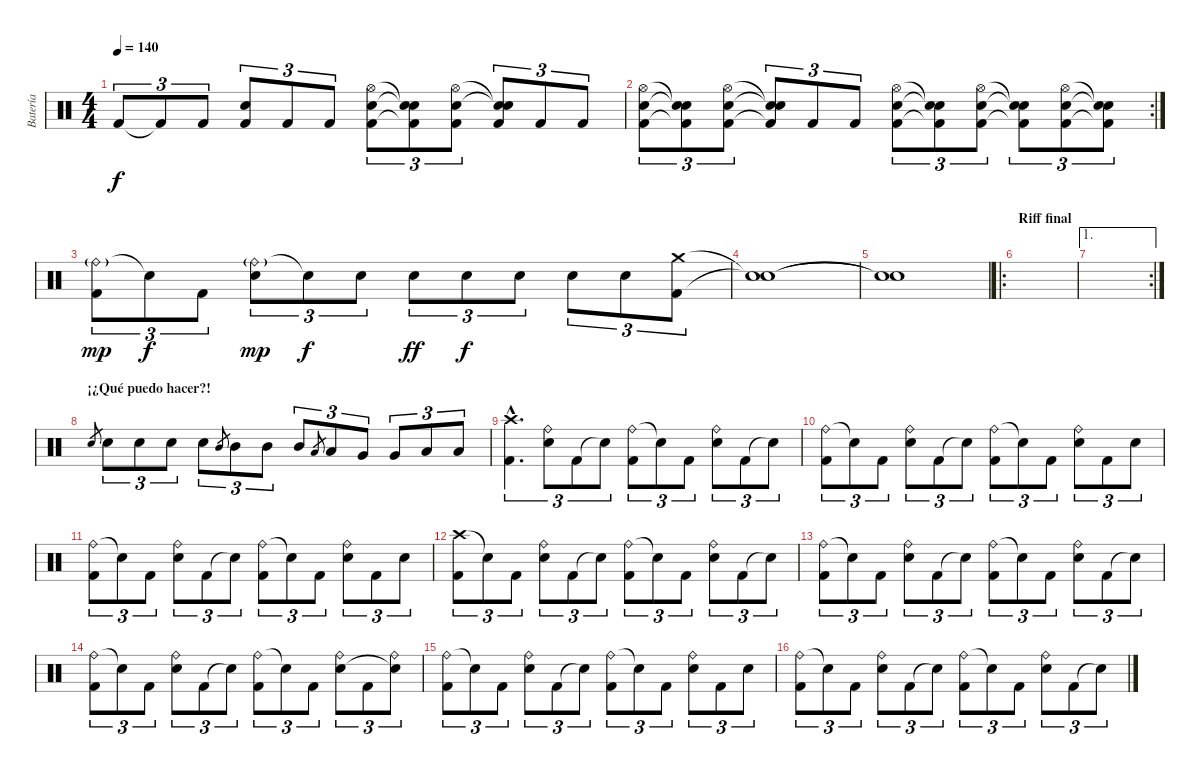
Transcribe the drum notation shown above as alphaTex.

\track ("Batería" "Batería") {instrument percussion}
\staff {score}
\articulation defaults
\ts (4 4)
\tempo 140
\clef neutral
\ks c "Kick (hit) 2".8{tu (3 2) dy f} "Kick (hit) 2"{t}.8{tu (3 2)} "Kick (hit) 2".8{tu (3 2)}
("Snare (hit) 2" "Kick (hit) 2").8{tu (3 2)} "Kick (hit) 2".8{tu (3 2)} "Kick (hit) 2".8{tu (3 2)} ("Hi-Hat (open)" "Snare (hit) 2" "Kick (hit) 2").8{tu (3 2)} ("Snare (hit)"{t} "Snare (hit)"{t} "Kick (hit) 2"{t}).8{tu (3 2)} ("Hi-Hat (open)" "Snare (hit) 2" "Kick (hit) 2").8{tu (3 2)} ("Snare (hit)"{t} "Snare (hit)"{t} "Kick (hit) 2").8{tu (3 2)} "Kick (hit) 2".8{tu (3 2)} "Kick (hit) 2".8{tu (3 2)} |
\rc 2
("Hi-Hat (open)" "Snare (hit) 2" "Kick (hit) 2").8{tu (3 2)} ("Snare (hit)"{t} "Snare (hit)"{t} "Kick (hit) 2"{t}).8{tu (3 2)} ("Hi-Hat (open)" "Snare (hit) 2" "Kick (hit) 2").8{tu (3 2)} ("Snare (hit)"{t} "Snare (hit) 2"{t} "Kick (hit) 2"{t}).8{tu (3 2)} "Kick (hit) 2".8{tu (3 2)} "Kick (hit) 2".8{tu (3 2)} ("Hi-Hat (open)" "Snare (hit) 2" "Kick (hit) 2").8{tu (3 2)} ("Snare (hit)"{t} "Snare (hit)"{t} "Kick (hit) 2"{t}).8{tu (3 2)} ("Hi-Hat (open)" "Snare (hit) 2" "Kick (hit) 2").8{tu (3 2)} ("Snare (hit)"{t} "Snare (hit)"{t} "Kick (hit) 2"{t}).8{tu (3 2)} ("Hi-Hat (open)" "Snare (hit) 2" "Kick (hit) 2").8{tu (3 2)} ("Snare (hit)"{t} "Snare (hit)"{t} "Kick (hit) 2"{t}).8{tu (3 2)} |
("Ride (bell)"{g} "Kick (hit) 2").8{tu (3 2) dy mp} "Snare (hit)"{t}.8{tu (3 2) dy f} "Kick (hit) 2".8{tu (3 2)} ("Ride (bell)"{g} "Snare (hit) 2").8{tu (3 2) dy mp} "Snare (hit)"{t}.8{tu (3 2) dy f} "Snare (hit) 2".8{tu (3 2)} "Snare (hit) 2".8{tu (3 2) dy ff} "Snare (hit) 2".8{tu (3 2) dy f} "Snare (hit) 2".8{tu (3 2)} "Snare (hit) 2".8{tu (3 2)} "Snare (hit) 2".8{tu (3 2)} ("Crash medium (hit)" "Kick (hit) 2").8{tu (3 2)} |
("Snare (hit)"{t} "Snare (hit)"{t}).1 |
("Snare (hit)"{t} "Snare (hit)"{t}).1 |
\ro
\section ("" "Riff final")
|
\ae 1
\rc 2
|
\section ("" "¡¿Qué puedo hacer?!")
"Snare (hit) 2".8{gr} "Snare (hit) 2".8{tu (3 2)} "Snare (hit) 2".8{tu (3 2)} "Snare (hit) 2".8{tu (3 2)} "Snare (hit) 2".8{tu (3 2)} "Mid Tom (hit)".8{gr} "Mid Tom (hit)".8{tu (3 2)} "Mid Tom (hit)".8{tu (3 2)} "Mid Tom (hit)".8{tu (3 2)} "Low Tom (hit)".8{gr} "Low Tom (hit)".8{tu (3 2)} "Very Low Tom (hit)".8{tu (3 2)} "Very Low Tom (hit)".8{tu (3 2)} "Low Floor Tom (hit)".8{tu (3 2)} "Low Floor Tom (hit)".8{tu (3 2)} |
("Crash high (hit)"{hac} "Kick (hit) 2"{hac}).4{d tu (3 2)} ("Ride (bell)" "Snare (hit) 2").8{tu (3 2)} "Kick (hit) 2".8{tu (3 2)} "Snare (hit)"{t}.8{tu (3 2)} ("Ride (bell)" "Kick (hit) 2").8{tu (3 2)} "Snare (hit)"{t}.8{tu (3 2)} "Kick (hit) 2".8{tu (3 2)} ("Ride (bell)" "Snare (hit) 2").8{tu (3 2)} "Kick (hit) 2".8{tu (3 2)} "Snare (hit)"{t}.8{tu (3 2)} |
("Ride (bell)" "Kick (hit) 2").8{tu (3 2)} "Snare (hit)"{t}.8{tu (3 2)} "Kick (hit) 2".8{tu (3 2)} ("Ride (bell)" "Snare (hit) 2").8{tu (3 2)} "Kick (hit) 2".8{tu (3 2)} "Snare (hit)"{t}.8{tu (3 2)} ("Ride (bell)" "Kick (hit) 2").8{tu (3 2)} "Snare (hit)"{t}.8{tu (3 2)} "Kick (hit) 2".8{tu (3 2)} ("Ride (bell)" "Snare (hit) 2").8{tu (3 2)} "Kick (hit) 2".8{tu (3 2)} "Snare (hit) 2".8{tu (3 2)} |
("Ride (bell)" "Kick (hit) 2").8{tu (3 2)} "Snare (hit)"{t}.8{tu (3 2)} "Kick (hit) 2".8{tu (3 2)} ("Ride (bell)" "Snare (hit) 2").8{tu (3 2)} "Kick (hit) 2".8{tu (3 2)} "Snare (hit)"{t}.8{tu (3 2)} ("Ride (bell)" "Kick (hit) 2").8{tu (3 2)} "Snare (hit)"{t}.8{tu (3 2)} "Kick (hit) 2".8{tu (3 2)} ("Ride (bell)" "Snare (hit) 2").8{tu (3 2)} "Kick (hit) 2".8{tu (3 2)} "Snare (hit) 2".8{tu (3 2)} |
("Crash high (hit)" "Kick (hit) 2").8{tu (3 2)} "Snare (hit)"{t}.8{tu (3 2)} "Kick (hit) 2".8{tu (3 2)} ("Ride (bell)" "Snare (hit) 2").8{tu (3 2)} "Kick (hit) 2".8{tu (3 2)} "Snare (hit)"{t}.8{tu (3 2)} ("Ride (bell)" "Kick (hit) 2").8{tu (3 2)} "Snare (hit)"{t}.8{tu (3 2)} "Kick (hit) 2".8{tu (3 2)} ("Ride (bell)" "Snare (hit) 2").8{tu (3 2)} "Kick (hit) 2".8{tu (3 2)} "Snare (hit)"{t}.8{tu (3 2)} |
("Ride (bell)" "Kick (hit) 2").8{tu (3 2)} "Snare (hit)"{t}.8{tu (3 2)} "Kick (hit) 2".8{tu (3 2)} ("Ride (bell)" "Snare (hit) 2").8{tu (3 2)} "Kick (hit) 2".8{tu (3 2)} "Snare (hit)"{t}.8{tu (3 2)} ("Ride (bell)" "Kick (hit) 2").8{tu (3 2)} "Snare (hit)"{t}.8{tu (3 2)} "Kick (hit) 2".8{tu (3 2)} ("Ride (bell)" "Snare (hit) 2").8{tu (3 2)} "Kick (hit) 2".8{tu (3 2)} "Snare (hit)"{t}.8{tu (3 2)} |
("Ride (bell)" "Kick (hit) 2").8{tu (3 2)} "Snare (hit)"{t}.8{tu (3 2)} "Kick (hit) 2".8{tu (3 2)} ("Ride (bell)" "Snare (hit) 2").8{tu (3 2)} "Kick (hit) 2".8{tu (3 2)} "Snare (hit)"{t}.8{tu (3 2)} ("Ride (bell)" "Kick (hit) 2").8{tu (3 2)} "Snare (hit)"{t}.8{tu (3 2)} "Kick (hit) 2".8{tu (3 2)} ("Ride (bell)" "Snare (hit) 2").8{tu (3 2)} "Kick (hit) 2".8{tu (3 2)} ("Ride (bell)" "Snare (hit)"{t}).8{tu (3 2)} |
("Ride (bell)" "Kick (hit) 2").8{tu (3 2)} "Snare (hit)"{t}.8{tu (3 2)} "Kick (hit) 2".8{tu (3 2)} ("Ride (bell)" "Snare (hit) 2").8{tu (3 2)} "Kick (hit) 2".8{tu (3 2)} "Snare (hit)"{t}.8{tu (3 2)} ("Ride (bell)" "Kick (hit) 2").8{tu (3 2)} "Snare (hit)"{t}.8{tu (3 2)} "Kick (hit) 2".8{tu (3 2)} ("Ride (bell)" "Snare (hit) 2").8{tu (3 2)} "Kick (hit) 2".8{tu (3 2)} "Snare (hit) 2".8{tu (3 2)} |
("Ride (bell)" "Kick (hit) 2").8{tu (3 2)} "Snare (hit)"{t}.8{tu (3 2)} "Kick (hit) 2".8{tu (3 2)} ("Ride (bell)" "Snare (hit) 2").8{tu (3 2)} "Kick (hit) 2".8{tu (3 2)} "Snare (hit)"{t}.8{tu (3 2)} ("Ride (bell)" "Kick (hit) 2").8{tu (3 2)} "Snare (hit)"{t}.8{tu (3 2)} "Kick (hit) 2".8{tu (3 2)} ("Ride (bell)" "Snare (hit) 2").8{tu (3 2)} "Kick (hit) 2".8{tu (3 2)} "Snare (hit)"{t}.8{tu (3 2)}
